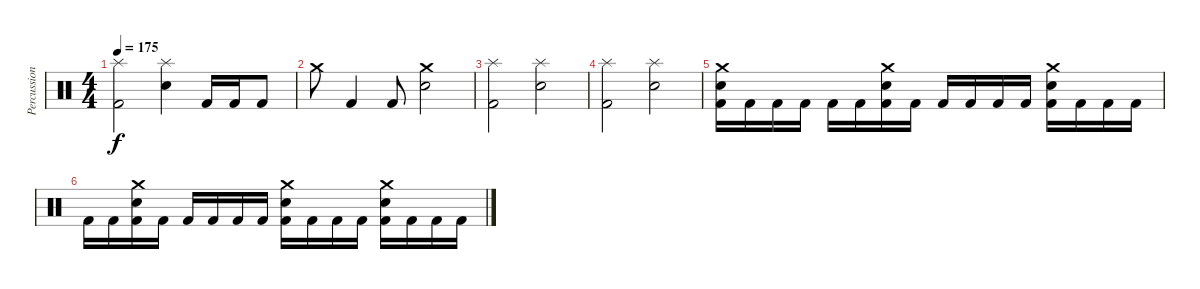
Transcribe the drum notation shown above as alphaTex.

\track ("Percussion" "Percussion") {instrument percussion}
\staff {score}
\articulation defaults
\ts (4 4)
\tempo 175
\clef neutral
\ks c
("Splash (hit)" "Kick (hit) 2").2{dy f} ("Splash (hit)" "Electric Snare (hit)").4 "Kick (hit) 2".16 "Kick (hit) 2".16 "Kick (hit) 2".8 |
"Crash medium (hit)".8 "Kick (hit) 2".4 "Kick (hit) 2".8 ("Crash medium (hit)" "Electric Snare (hit)").2 |
("Splash (hit)" "Kick (hit) 2").2 ("Splash (hit)" "Electric Snare (hit)").2 |
("Splash (hit)" "Kick (hit) 2").2 ("Splash (hit)" "Electric Snare (hit)").2 |
("Crash medium (hit)" "Electric Snare (hit)" "Kick (hit) 2").16 "Kick (hit) 2".16 "Kick (hit) 2".16 "Kick (hit) 2".16 "Kick (hit) 2".16 "Kick (hit) 2".16 ("Crash medium (hit)" "Electric Snare (hit)" "Kick (hit) 2").16 "Kick (hit) 2".16 "Kick (hit) 2".16 "Kick (hit) 2".16 "Kick (hit) 2".16 "Kick (hit) 2".16 ("Crash medium (hit)" "Electric Snare (hit)" "Kick (hit) 2").16 "Kick (hit) 2".16 "Kick (hit) 2".16 "Kick (hit) 2".16 |
"Kick (hit) 2".16 "Kick (hit) 2".16 ("Crash medium (hit)" "Electric Snare (hit)" "Kick (hit) 2").16 "Kick (hit) 2".16 "Kick (hit) 2".16 "Kick (hit) 2".16 "Kick (hit) 2".16 "Kick (hit) 2".16 ("Crash medium (hit)" "Electric Snare (hit)" "Kick (hit) 2").16 "Kick (hit) 2".16 "Kick (hit) 2".16 "Kick (hit) 2".16 ("Crash medium (hit)" "Electric Snare (hit)" "Kick (hit) 2").16 "Kick (hit) 2".16 "Kick (hit) 2".16 "Kick (hit) 2".16
